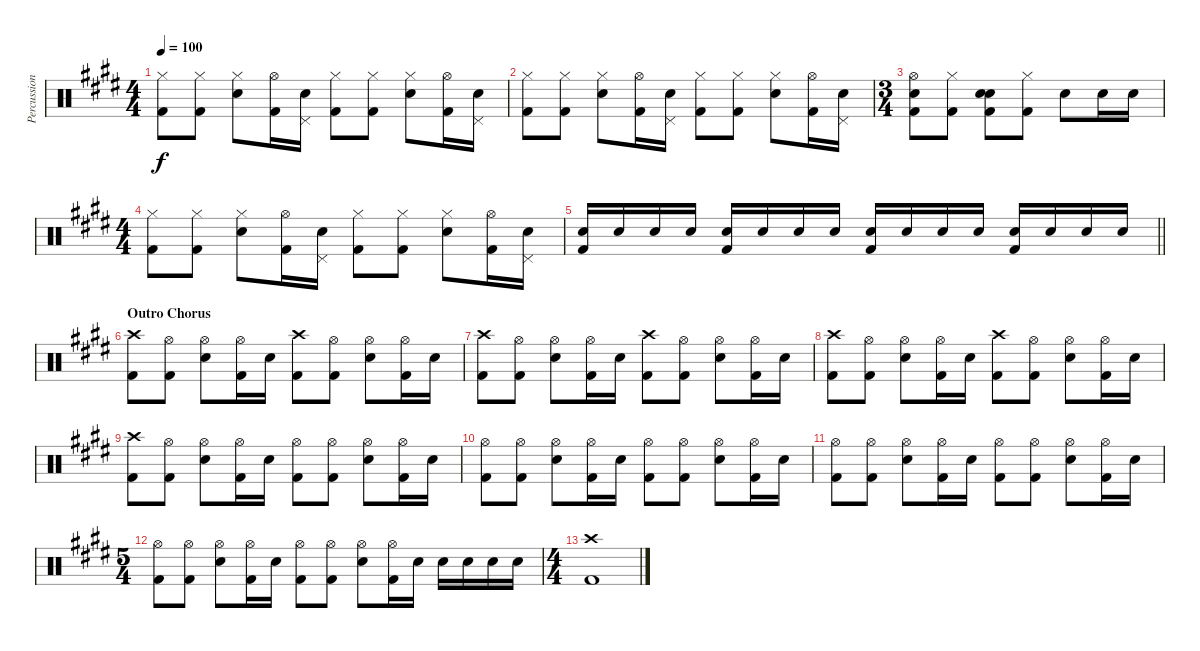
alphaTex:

\track ("Percussion" "Percussion") {instrument percussion}
\staff {score}
\articulation defaults
\ts (4 4)
\tempo 100
\clef neutral
\ks e
("Hi-Hat (closed)" "Kick (hit) 2").8{dy f} ("Hi-Hat (closed)" "Kick (hit) 2").8 ("Hi-Hat (closed)" "Electric Snare (hit)").8 ("Hi-Hat (open)" "Kick (hit) 2").16 ("Electric Snare (hit)" "Pedal Hi-Hat (hit)").16 ("Hi-Hat (closed)" "Kick (hit) 2").8 ("Hi-Hat (closed)" "Kick (hit) 2").8 ("Hi-Hat (closed)" "Electric Snare (hit)").8 ("Hi-Hat (open)" "Kick (hit) 2").16 ("Electric Snare (hit)" "Pedal Hi-Hat (hit)").16 |
("Hi-Hat (closed)" "Kick (hit) 2").8 ("Hi-Hat (closed)" "Kick (hit) 2").8 ("Hi-Hat (closed)" "Electric Snare (hit)").8 ("Hi-Hat (open)" "Kick (hit) 2").16 ("Electric Snare (hit)" "Pedal Hi-Hat (hit)").16 ("Hi-Hat (closed)" "Kick (hit) 2").8 ("Hi-Hat (closed)" "Kick (hit) 2").8 ("Hi-Hat (closed)" "Electric Snare (hit)").8 ("Hi-Hat (open)" "Kick (hit) 2").16 ("Electric Snare (hit)" "Pedal Hi-Hat (hit)").16 |
\ts (3 4)
("Hi-Hat (open)" "Electric Snare (hit)" "Kick (hit) 2").8 ("Hi-Hat (closed)" "Kick (hit) 2").8 ("Snare (hit)" "Electric Snare (hit)" "Kick (hit) 2").8 ("Hi-Hat (closed)" "Kick (hit) 2").8 "Electric Snare (hit)".8 "Electric Snare (hit)".16 "Electric Snare (hit)".16 |
\ts (4 4)
("Hi-Hat (closed)" "Kick (hit) 2").8 ("Hi-Hat (closed)" "Kick (hit) 2").8 ("Hi-Hat (closed)" "Electric Snare (hit)").8 ("Hi-Hat (open)" "Kick (hit) 2").16 ("Electric Snare (hit)" "Pedal Hi-Hat (hit)").16 ("Hi-Hat (closed)" "Kick (hit) 2").8 ("Hi-Hat (closed)" "Kick (hit) 2").8 ("Hi-Hat (closed)" "Electric Snare (hit)").8 ("Hi-Hat (open)" "Kick (hit) 2").16 ("Electric Snare (hit)" "Pedal Hi-Hat (hit)").16 |
\barLineRight lightlight
("Electric Snare (hit)" "Kick (hit) 2").16 "Electric Snare (hit)".16 "Electric Snare (hit)".16 "Electric Snare (hit)".16 ("Electric Snare (hit)" "Kick (hit) 2").16 "Electric Snare (hit)".16 "Electric Snare (hit)".16 "Electric Snare (hit)".16 ("Electric Snare (hit)" "Kick (hit) 2").16 "Electric Snare (hit)".16 "Electric Snare (hit)".16 "Electric Snare (hit)".16 ("Electric Snare (hit)" "Kick (hit) 2").16 "Electric Snare (hit)".16 "Electric Snare (hit)".16 "Electric Snare (hit)".16 |
\section ("" "Outro Chorus")
("Crash high (hit)" "Kick (hit) 2").8 ("Hi-Hat (open)" "Kick (hit) 2").8 ("Hi-Hat (open)" "Electric Snare (hit)").8 ("Hi-Hat (open)" "Kick (hit) 2").16 "Electric Snare (hit)".16 ("Crash high (hit)" "Kick (hit) 2").8 ("Hi-Hat (open)" "Kick (hit) 2").8 ("Hi-Hat (open)" "Electric Snare (hit)").8 ("Hi-Hat (open)" "Kick (hit) 2").16 "Electric Snare (hit)".16 |
("Crash high (hit)" "Kick (hit) 2").8 ("Hi-Hat (open)" "Kick (hit) 2").8 ("Hi-Hat (open)" "Electric Snare (hit)").8 ("Hi-Hat (open)" "Kick (hit) 2").16 "Electric Snare (hit)".16 ("Crash high (hit)" "Kick (hit) 2").8 ("Hi-Hat (open)" "Kick (hit) 2").8 ("Hi-Hat (open)" "Electric Snare (hit)").8 ("Hi-Hat (open)" "Kick (hit) 2").16 "Electric Snare (hit)".16 |
("Crash high (hit)" "Kick (hit) 2").8 ("Hi-Hat (open)" "Kick (hit) 2").8 ("Hi-Hat (open)" "Electric Snare (hit)").8 ("Hi-Hat (open)" "Kick (hit) 2").16 "Electric Snare (hit)".16 ("Crash high (hit)" "Kick (hit) 2").8 ("Hi-Hat (open)" "Kick (hit) 2").8 ("Hi-Hat (open)" "Electric Snare (hit)").8 ("Hi-Hat (open)" "Kick (hit) 2").16 "Electric Snare (hit)".16 |
("Crash high (hit)" "Kick (hit) 2").8 ("Hi-Hat (open)" "Kick (hit) 2").8 ("Hi-Hat (open)" "Electric Snare (hit)").8 ("Hi-Hat (open)" "Kick (hit) 2").16 "Electric Snare (hit)".16 ("Hi-Hat (open)" "Kick (hit) 2").8 ("Hi-Hat (open)" "Kick (hit) 2").8 ("Hi-Hat (open)" "Electric Snare (hit)").8 ("Hi-Hat (open)" "Kick (hit) 2").16 "Electric Snare (hit)".16 |
("Hi-Hat (open)" "Kick (hit) 2").8 ("Hi-Hat (open)" "Kick (hit) 2").8 ("Hi-Hat (open)" "Electric Snare (hit)").8 ("Hi-Hat (open)" "Kick (hit) 2").16 "Electric Snare (hit)".16 ("Hi-Hat (open)" "Kick (hit) 2").8 ("Hi-Hat (open)" "Kick (hit) 2").8 ("Hi-Hat (open)" "Electric Snare (hit)").8 ("Hi-Hat (open)" "Kick (hit) 2").16 "Electric Snare (hit)".16 |
("Hi-Hat (open)" "Kick (hit) 2").8 ("Hi-Hat (open)" "Kick (hit) 2").8 ("Hi-Hat (open)" "Electric Snare (hit)").8 ("Hi-Hat (open)" "Kick (hit) 2").16 "Electric Snare (hit)".16 ("Hi-Hat (open)" "Kick (hit) 2").8 ("Hi-Hat (open)" "Kick (hit) 2").8 ("Hi-Hat (open)" "Electric Snare (hit)").8 ("Hi-Hat (open)" "Kick (hit) 2").16 "Electric Snare (hit)".16 |
\ts (5 4)
("Hi-Hat (open)" "Kick (hit) 2").8 ("Hi-Hat (open)" "Kick (hit) 2").8 ("Hi-Hat (open)" "Electric Snare (hit)").8 ("Hi-Hat (open)" "Kick (hit) 2").16 "Electric Snare (hit)".16 ("Hi-Hat (open)" "Kick (hit) 2").8 ("Hi-Hat (open)" "Kick (hit) 2").8 ("Hi-Hat (open)" "Electric Snare (hit)").8 ("Hi-Hat (open)" "Kick (hit) 2").16 "Electric Snare (hit)".16 "Electric Snare (hit)".16 "Electric Snare (hit)".16 "Electric Snare (hit)".16 "Electric Snare (hit)".16 |
\ts (4 4)
("Crash high (hit)" "Kick (hit) 2").1
